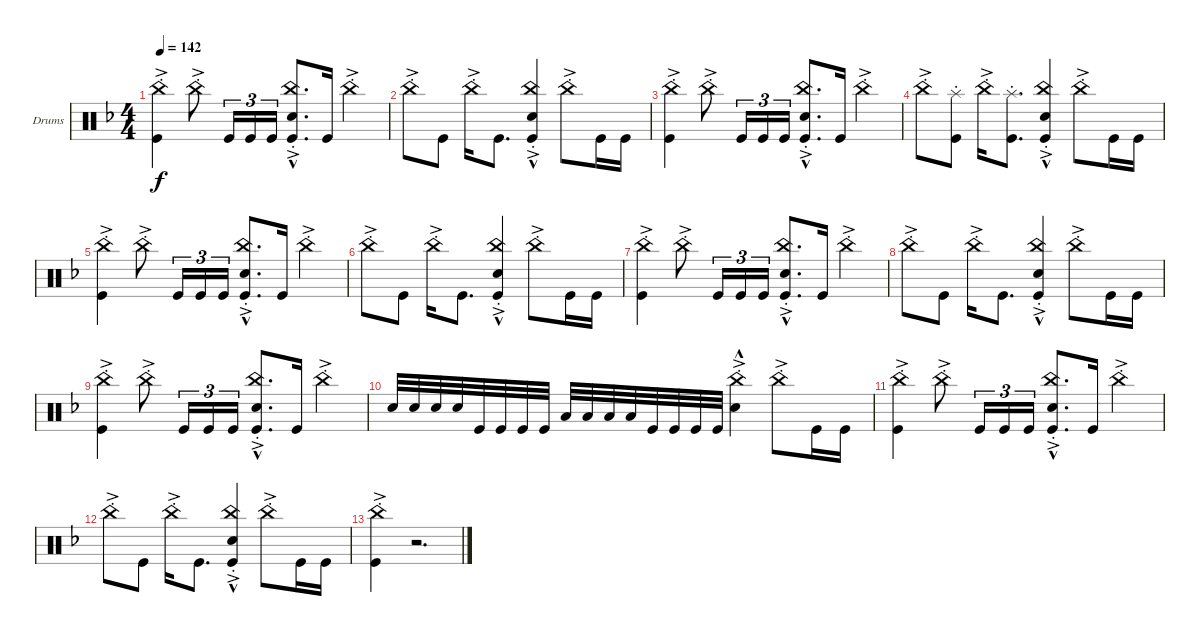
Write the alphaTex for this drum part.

\bracketExtendMode groupsimilarinstruments
\firstSystemTrackNameOrientation horizontal
\otherSystemsTrackNameOrientation horizontal
\track ("Drumkit" "Drums") {instrument percussion}
\staff {score}
\articulation defaults
\ts (4 4)
\tempo 142
\clef neutral
\scale
0.333333
\ks dminor
("Kick (hit)" "China (hit)"{ac st}).4{dy f} "China (hit)"{ac st}.8 "Kick (hit)".16{tu (3 2)} "Kick (hit)".16{tu (3 2)} "Kick (hit)".16{tu (3 2)} ("Kick (hit)" "China (hit)"{ac st} "Snare (hit) 2"{hac}).8{d} "Kick (hit)".16 "China (hit)"{ac st}.4 |
\scale
0.333333 "China (hit)"{ac st}.8 "Kick (hit)".8 "China (hit)"{ac st}.16 "Kick (hit)".8{d} ("China (hit)"{ac st} "Kick (hit)" "Snare (hit) 2"{hac}).4 "China (hit)"{ac st}.8 "Kick (hit)".16 "Kick (hit)".16 |
\scale
0.333333 ("Kick (hit)" "China (hit)"{ac st}).4 "China (hit)"{ac st}.8 "Kick (hit)".16{tu (3 2)} "Kick (hit)".16{tu (3 2)} "Kick (hit)".16{tu (3 2)} ("Kick (hit)" "China (hit)"{ac st} "Snare (hit) 2"{hac}).8{d} "Kick (hit)".16 "China (hit)"{ac st}.4 |
\scale
0.333333 "China (hit)"{ac st}.8 ("Kick (hit)" "Splash (hit)"{st}).8 "China (hit)"{ac st}.16 ("Kick (hit)" "Splash (hit)"{st}).8{d} ("China (hit)"{ac st} "Kick (hit)" "Snare (hit) 2"{hac}).4 "China (hit)"{ac st}.8 "Kick (hit)".16 "Kick (hit)".16 |
\scale
0.333333 ("Kick (hit)" "China (hit)"{ac st}).4 "China (hit)"{ac st}.8 "Kick (hit)".16{tu (3 2)} "Kick (hit)".16{tu (3 2)} "Kick (hit)".16{tu (3 2)} ("Kick (hit)" "China (hit)"{ac st} "Snare (hit) 2"{hac}).8{d} "Kick (hit)".16 "China (hit)"{ac st}.4 |
\scale
0.333333 "China (hit)"{ac st}.8 "Kick (hit)".8 "China (hit)"{ac st}.16 "Kick (hit)".8{d} ("China (hit)"{ac st} "Kick (hit)" "Snare (hit) 2"{hac}).4 "China (hit)"{ac st}.8 "Kick (hit)".16 "Kick (hit)".16 |
\scale
0.333333 ("Kick (hit)" "China (hit)"{ac st}).4 "China (hit)"{ac st}.8 "Kick (hit)".16{tu (3 2)} "Kick (hit)".16{tu (3 2)} "Kick (hit)".16{tu (3 2)} ("Kick (hit)" "China (hit)"{ac st} "Snare (hit) 2"{hac}).8{d} "Kick (hit)".16 "China (hit)"{ac st}.4 |
\scale
0.333333 "China (hit)"{ac st}.8 "Kick (hit)".8 "China (hit)"{ac st}.16 "Kick (hit)".8{d} ("China (hit)"{ac st} "Kick (hit)" "Snare (hit) 2"{hac}).4 "China (hit)"{ac st}.8 "Kick (hit)".16 "Kick (hit)".16 |
\scale
0.333333 ("Kick (hit)" "China (hit)"{ac st}).4 "China (hit)"{ac st}.8 "Kick (hit)".16{tu (3 2)} "Kick (hit)".16{tu (3 2)} "Kick (hit)".16{tu (3 2)} ("Kick (hit)" "China (hit)"{ac st} "Snare (hit) 2"{hac}).8{d} "Kick (hit)".16 "China (hit)"{ac st}.4 |
\scale
0.333333 "Snare (hit) 2".32 "Snare (hit) 2".32 "Snare (hit) 2".32 "Snare (hit) 2".32 "Kick (hit)".32 "Kick (hit)".32 "Kick (hit)".32 "Kick (hit)".32 "Low Tom (hit)".32 "Low Tom (hit)".32 "Low Tom (hit)".32 "Low Tom (hit)".32 "Kick (hit)".32 "Kick (hit)".32 "Kick (hit)".32 "Kick (hit)".32 ("China (hit)"{ac st} "Snare (hit) 2"{hac}).4 "China (hit)"{ac st}.8 "Kick (hit)".16 "Kick (hit)".16 |
\scale
0.333333 ("Kick (hit)" "China (hit)"{ac st}).4 "China (hit)"{ac st}.8 "Kick (hit)".16{tu (3 2)} "Kick (hit)".16{tu (3 2)} "Kick (hit)".16{tu (3 2)} ("Kick (hit)" "China (hit)"{ac st} "Snare (hit) 2"{hac}).8{d} "Kick (hit)".16 "China (hit)"{ac st}.4 |
\scale
0.333333 "China (hit)"{ac st}.8 "Kick (hit)".8 "China (hit)"{ac st}.16 "Kick (hit)".8{d} ("China (hit)"{ac st} "Kick (hit)" "Snare (hit) 2"{hac}).4 "China (hit)"{ac st}.8 "Kick (hit)".16 "Kick (hit)".16 |
("Kick (hit)" "China (hit)"{ac st}).4 r.2{d}
